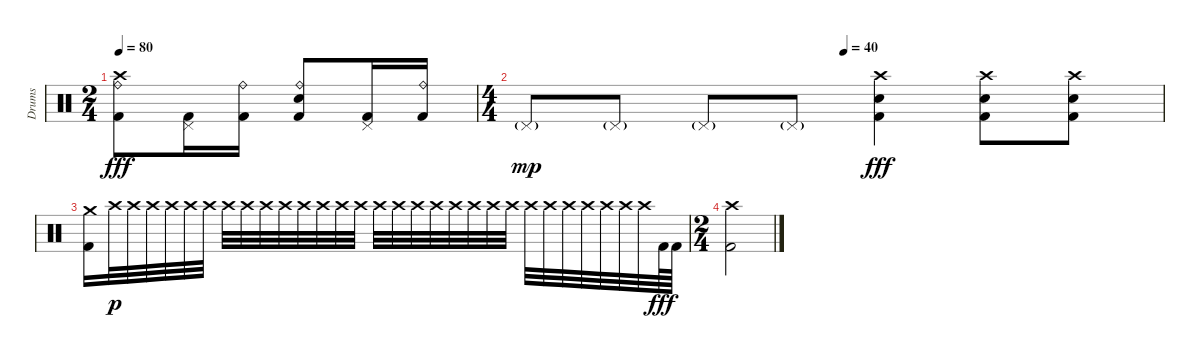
\track ("Drums" "Drums") {instrument percussion}
\staff {score}
\articulation defaults
\ts (2 4)
\tempo 80
\clef neutral
\ks c
("Crash high (hit)" "Ride (bell)" "Kick (hit) 2").8{dy fff} ("Pedal Hi-Hat (hit)" "Kick (hit) 2").16 ("Ride (bell)" "Kick (hit) 2").16 ("Ride (bell)" "Electric Snare (hit)" "Kick (hit) 2").8 ("Pedal Hi-Hat (hit)" "Kick (hit) 2").16 ("Ride (bell)" "Kick (hit) 2").16 |
\ts (4 4)
\tempo (40 0.5)
"Pedal Hi-Hat (hit)"{g}.8{dy mp} "Pedal Hi-Hat (hit)"{g}.8 "Pedal Hi-Hat (hit)"{g}.8 "Pedal Hi-Hat (hit)"{g}.8 ("Crash high (hit)" "Electric Snare (hit)" "Kick (hit) 2").4{dy fff} ("Crash high (hit)" "Electric Snare (hit)" "Kick (hit) 2").8 ("Crash high (hit)" "Electric Snare (hit)" "Kick (hit) 2").8 |
("Crash medium (hit)" "Kick (hit) 2").16 "Crash high (hit)".32{dy p} "Crash high (hit)".32 "Crash high (hit)".32 "Crash high (hit)".32 "Crash high (hit)".32 "Crash high (hit)".32 "Crash high (hit)".32 "Crash high (hit)".32 "Crash high (hit)".32 "Crash high (hit)".32 "Crash high (hit)".32 "Crash high (hit)".32 "Crash high (hit)".32 "Crash high (hit)".32 "Crash high (hit)".32 "Crash high (hit)".32 "Crash high (hit)".32 "Crash high (hit)".32 "Crash high (hit)".32 "Crash high (hit)".32 "Crash high (hit)".32 "Crash high (hit)".32 "Crash high (hit)".32 "Crash high (hit)".32 "Crash high (hit)".32 "Crash high (hit)".32 "Crash high (hit)".32 "Crash high (hit)".32 "Crash high (hit)".32 "Kick (hit) 2".64{dy fff} "Kick (hit) 2".64 |
\ts (2 4)
("Crash high (hit)" "Kick (hit) 2").2
